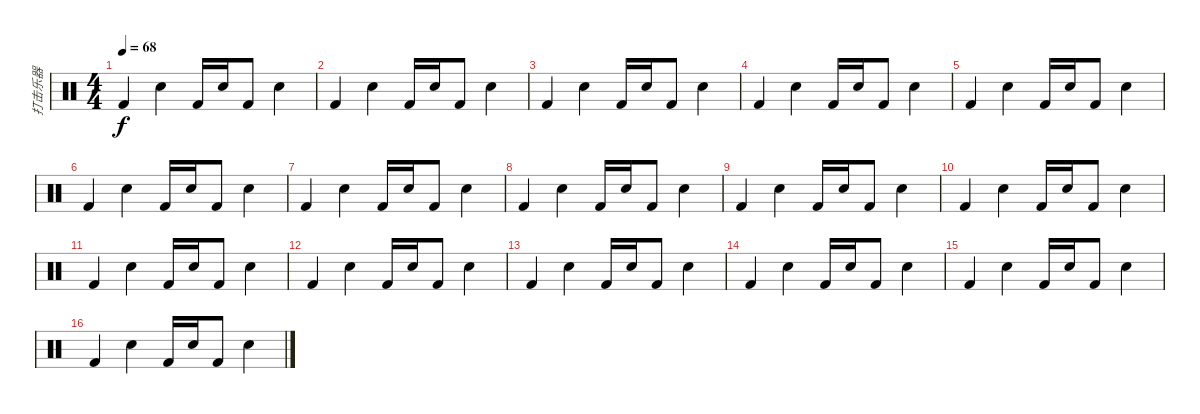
\track ("打击乐器" "打击乐器") {instrument percussion}
\staff {score}
\articulation defaults
\ts (4 4)
\tempo 68
\clef neutral
\ks c "Kick (hit) 2".4{dy f} "Snare (hit) 2".4 "Kick (hit) 2".16 "Snare (hit) 2".16 "Kick (hit) 2".8 "Snare (hit) 2".4
|
"Kick (hit) 2".4 "Snare (hit) 2".4 "Kick (hit) 2".16 "Snare (hit) 2".16 "Kick (hit) 2".8 "Snare (hit) 2".4 |
"Kick (hit) 2".4 "Snare (hit) 2".4 "Kick (hit) 2".16 "Snare (hit) 2".16 "Kick (hit) 2".8 "Snare (hit) 2".4 |
"Kick (hit) 2".4 "Snare (hit) 2".4 "Kick (hit) 2".16 "Snare (hit) 2".16 "Kick (hit) 2".8 "Snare (hit) 2".4 |
"Kick (hit) 2".4 "Snare (hit) 2".4 "Kick (hit) 2".16 "Snare (hit) 2".16 "Kick (hit) 2".8 "Snare (hit) 2".4 |
"Kick (hit) 2".4 "Snare (hit) 2".4 "Kick (hit) 2".16 "Snare (hit) 2".16 "Kick (hit) 2".8 "Snare (hit) 2".4 |
"Kick (hit) 2".4 "Snare (hit) 2".4 "Kick (hit) 2".16 "Snare (hit) 2".16 "Kick (hit) 2".8 "Snare (hit) 2".4 |
"Kick (hit) 2".4 "Snare (hit) 2".4 "Kick (hit) 2".16 "Snare (hit) 2".16 "Kick (hit) 2".8 "Snare (hit) 2".4 |
"Kick (hit) 2".4 "Snare (hit) 2".4 "Kick (hit) 2".16 "Snare (hit) 2".16 "Kick (hit) 2".8 "Snare (hit) 2".4 |
"Kick (hit) 2".4 "Snare (hit) 2".4 "Kick (hit) 2".16 "Snare (hit) 2".16 "Kick (hit) 2".8 "Snare (hit) 2".4 |
"Kick (hit) 2".4 "Snare (hit) 2".4 "Kick (hit) 2".16 "Snare (hit) 2".16 "Kick (hit) 2".8 "Snare (hit) 2".4 |
"Kick (hit) 2".4 "Snare (hit) 2".4 "Kick (hit) 2".16 "Snare (hit) 2".16 "Kick (hit) 2".8 "Snare (hit) 2".4 |
"Kick (hit) 2".4 "Snare (hit) 2".4 "Kick (hit) 2".16 "Snare (hit) 2".16 "Kick (hit) 2".8 "Snare (hit) 2".4 |
"Kick (hit) 2".4 "Snare (hit) 2".4 "Kick (hit) 2".16 "Snare (hit) 2".16 "Kick (hit) 2".8 "Snare (hit) 2".4 |
"Kick (hit) 2".4 "Snare (hit) 2".4 "Kick (hit) 2".16 "Snare (hit) 2".16 "Kick (hit) 2".8 "Snare (hit) 2".4 |
"Kick (hit) 2".4 "Snare (hit) 2".4 "Kick (hit) 2".16 "Snare (hit) 2".16 "Kick (hit) 2".8 "Snare (hit) 2".4
